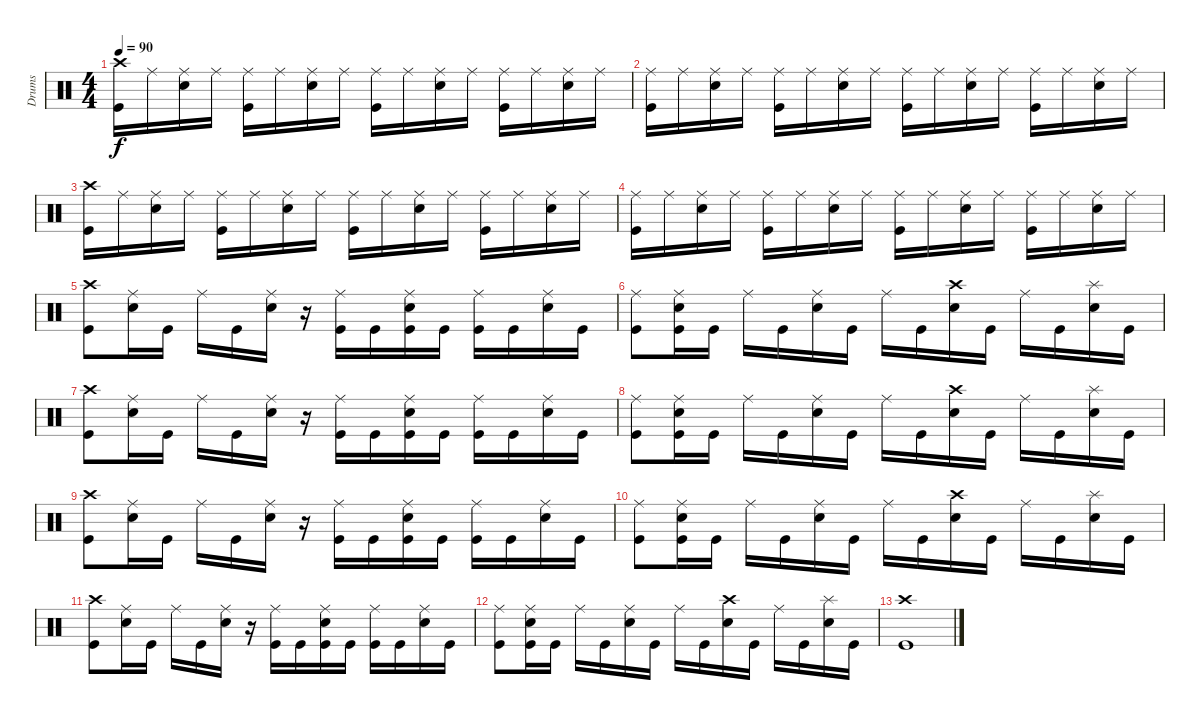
\track ("Drums" "Drums") {instrument percussion}
\staff {score}
\articulation defaults
\ts (4 4)
\tempo 90
\clef neutral
\ks c
("Crash high (hit)" "Kick (hit)").16{dy f} "Ride (middle)".16 ("Ride (middle)" "Electric Snare (hit)").16 "Ride (middle)".16 ("Ride (middle)" "Kick (hit)").16 "Ride (middle)".16 ("Ride (middle)" "Electric Snare (hit)").16 "Ride (middle)".16 ("Ride (middle)" "Kick (hit)").16 "Ride (middle)".16 ("Ride (middle)" "Electric Snare (hit)").16 "Ride (middle)".16 ("Ride (middle)" "Kick (hit)").16 "Ride (middle)".16 ("Ride (middle)" "Electric Snare (hit)").16 "Ride (middle)".16 |
("Ride (middle)" "Kick (hit)").16 "Ride (middle)".16 ("Ride (middle)" "Electric Snare (hit)").16 "Ride (middle)".16 ("Ride (middle)" "Kick (hit)").16 "Ride (middle)".16 ("Ride (middle)" "Electric Snare (hit)").16 "Ride (middle)".16 ("Ride (middle)" "Kick (hit)").16 "Ride (middle)".16 ("Ride (middle)" "Electric Snare (hit)").16 "Ride (middle)".16 ("Ride (middle)" "Kick (hit)").16 "Ride (middle)".16 ("Ride (middle)" "Electric Snare (hit)").16 "Ride (middle)".16 |
("Crash high (hit)" "Kick (hit)").16 "Ride (middle)".16 ("Ride (middle)" "Electric Snare (hit)").16 "Ride (middle)".16 ("Ride (middle)" "Kick (hit)").16 "Ride (middle)".16 ("Ride (middle)" "Electric Snare (hit)").16 "Ride (middle)".16 ("Ride (middle)" "Kick (hit)").16 "Ride (middle)".16 ("Ride (middle)" "Electric Snare (hit)").16 "Ride (middle)".16 ("Ride (middle)" "Kick (hit)").16 "Ride (middle)".16 ("Ride (middle)" "Electric Snare (hit)").16 "Ride (middle)".16 |
("Ride (middle)" "Kick (hit)").16 "Ride (middle)".16 ("Ride (middle)" "Electric Snare (hit)").16 "Ride (middle)".16 ("Ride (middle)" "Kick (hit)").16 "Ride (middle)".16 ("Ride (middle)" "Electric Snare (hit)").16 "Ride (middle)".16 ("Ride (middle)" "Kick (hit)").16 "Ride (middle)".16 ("Ride (middle)" "Electric Snare (hit)").16 "Ride (middle)".16 ("Ride (middle)" "Kick (hit)").16 "Ride (middle)".16 ("Ride (middle)" "Electric Snare (hit)").16 "Ride (middle)".16 |
("Crash high (hit)" "Kick (hit)").8 ("Ride (middle)" "Electric Snare (hit)").16 "Kick (hit)".16 "Ride (middle)".16 "Kick (hit)".16 ("Ride (middle)" "Electric Snare (hit)").16 r.16 ("Ride (middle)" "Kick (hit)").16 "Kick (hit)".16 ("Ride (middle)" "Electric Snare (hit)" "Kick (hit)").16 "Kick (hit)".16 ("Ride (middle)" "Kick (hit)").16 "Kick (hit)".16 ("Ride (middle)" "Electric Snare (hit)").16 "Kick (hit)".16 |
("Ride (middle)" "Kick (hit)").8 ("Ride (middle)" "Electric Snare (hit)" "Kick (hit)").16 "Kick (hit)".16 "Ride (middle)".16 "Kick (hit)".16 ("Ride (middle)" "Electric Snare (hit)").16 "Kick (hit)".16 "Ride (middle)".16 "Kick (hit)".16 ("Crash high (hit)" "Electric Snare (hit)").16 "Kick (hit)".16 "Ride (middle)".16 "Kick (hit)".16 ("Splash (hit)" "Electric Snare (hit)").16 "Kick (hit)".16 |
("Crash high (hit)" "Kick (hit)").8 ("Ride (middle)" "Electric Snare (hit)").16 "Kick (hit)".16 "Ride (middle)".16 "Kick (hit)".16 ("Ride (middle)" "Electric Snare (hit)").16 r.16 ("Ride (middle)" "Kick (hit)").16 "Kick (hit)".16 ("Ride (middle)" "Electric Snare (hit)" "Kick (hit)").16 "Kick (hit)".16 ("Ride (middle)" "Kick (hit)").16 "Kick (hit)".16 ("Ride (middle)" "Electric Snare (hit)").16 "Kick (hit)".16 |
("Ride (middle)" "Kick (hit)").8 ("Ride (middle)" "Electric Snare (hit)" "Kick (hit)").16 "Kick (hit)".16 "Ride (middle)".16 "Kick (hit)".16 ("Ride (middle)" "Electric Snare (hit)").16 "Kick (hit)".16 "Ride (middle)".16 "Kick (hit)".16 ("Crash high (hit)" "Electric Snare (hit)").16 "Kick (hit)".16 "Ride (middle)".16 "Kick (hit)".16 ("Splash (hit)" "Electric Snare (hit)").16 "Kick (hit)".16 |
("Crash high (hit)" "Kick (hit)").8 ("Ride (middle)" "Electric Snare (hit)").16 "Kick (hit)".16 "Ride (middle)".16 "Kick (hit)".16 ("Ride (middle)" "Electric Snare (hit)").16 r.16 ("Ride (middle)" "Kick (hit)").16 "Kick (hit)".16 ("Ride (middle)" "Electric Snare (hit)" "Kick (hit)").16 "Kick (hit)".16 ("Ride (middle)" "Kick (hit)").16 "Kick (hit)".16 ("Ride (middle)" "Electric Snare (hit)").16 "Kick (hit)".16 |
("Ride (middle)" "Kick (hit)").8 ("Ride (middle)" "Electric Snare (hit)" "Kick (hit)").16 "Kick (hit)".16 "Ride (middle)".16 "Kick (hit)".16 ("Ride (middle)" "Electric Snare (hit)").16 "Kick (hit)".16 "Ride (middle)".16 "Kick (hit)".16 ("Crash high (hit)" "Electric Snare (hit)").16 "Kick (hit)".16 "Ride (middle)".16 "Kick (hit)".16 ("Splash (hit)" "Electric Snare (hit)").16 "Kick (hit)".16 |
("Crash high (hit)" "Kick (hit)").8 ("Ride (middle)" "Electric Snare (hit)").16 "Kick (hit)".16 "Ride (middle)".16 "Kick (hit)".16 ("Ride (middle)" "Electric Snare (hit)").16 r.16 ("Ride (middle)" "Kick (hit)").16 "Kick (hit)".16 ("Ride (middle)" "Electric Snare (hit)" "Kick (hit)").16 "Kick (hit)".16 ("Ride (middle)" "Kick (hit)").16 "Kick (hit)".16 ("Ride (middle)" "Electric Snare (hit)").16 "Kick (hit)".16 |
("Ride (middle)" "Kick (hit)").8 ("Ride (middle)" "Electric Snare (hit)" "Kick (hit)").16 "Kick (hit)".16 "Ride (middle)".16 "Kick (hit)".16 ("Ride (middle)" "Electric Snare (hit)").16 "Kick (hit)".16 "Ride (middle)".16 "Kick (hit)".16 ("Crash high (hit)" "Electric Snare (hit)").16 "Kick (hit)".16 "Ride (middle)".16 "Kick (hit)".16 ("Splash (hit)" "Electric Snare (hit)").16 "Kick (hit)".16 |
("Crash high (hit)" "Kick (hit)").1
